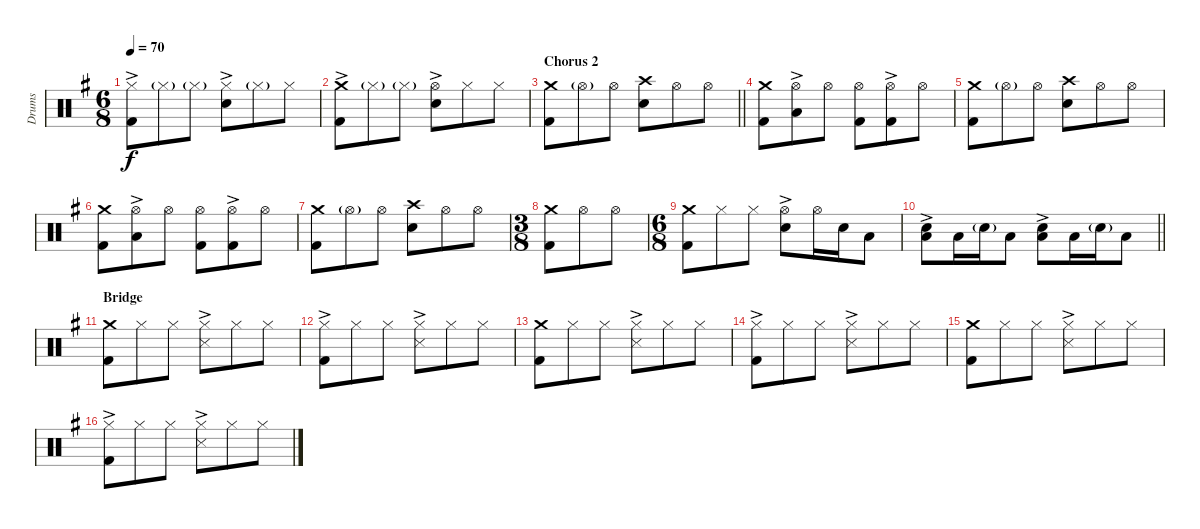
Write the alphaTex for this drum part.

\track ("Drums" "Drums") {instrument percussion}
\staff {score}
\articulation defaults
\ts (6 8)
\tempo 70
\clef neutral
\ks g
("Hi-Hat (closed)"{ac} "Kick (hit) 2").8{dy f} "Hi-Hat (closed)"{g}.8 "Hi-Hat (closed)"{g}.8 ("Hi-Hat (closed)"{ac} "Snare (hit) 2").8 "Hi-Hat (closed)"{g}.8 "Hi-Hat (closed)".8 |
("Crash medium (hit)"{ac} "Kick (hit) 2").8 "Hi-Hat (closed)"{g}.8 "Hi-Hat (closed)"{g}.8 ("Hi-Hat (open)"{ac} "Snare (hit) 2").8 "Hi-Hat (closed)".8 "Hi-Hat (closed)".8 |
\section ("" "Chorus 2")
\barLineRight lightlight
("Crash medium (hit)" "Kick (hit) 2").8 "Hi-Hat (open)"{g}.8 "Hi-Hat (open)".8 ("Crash high (hit)" "Snare (hit) 2").8 "Hi-Hat (open)".8 "Hi-Hat (open)".8 |
("Crash medium (hit)" "Kick (hit) 2").8 ("Hi-Hat (open)"{ac} "Low Tom (hit)").8 "Hi-Hat (open)".8 ("Hi-Hat (open)" "Kick (hit) 2").8 ("Hi-Hat (open)"{ac} "Kick (hit) 2").8 "Hi-Hat (open)".8 |
("Crash medium (hit)" "Kick (hit) 2").8 "Hi-Hat (open)"{g}.8 "Hi-Hat (open)".8 ("Crash high (hit)" "Snare (hit) 2").8 "Hi-Hat (open)".8 "Hi-Hat (open)".8 |
("Crash medium (hit)" "Kick (hit) 2").8 ("Hi-Hat (open)"{ac} "Low Tom (hit)").8 "Hi-Hat (open)".8 ("Hi-Hat (open)" "Kick (hit) 2").8 ("Hi-Hat (open)"{ac} "Kick (hit) 2").8 "Hi-Hat (open)".8 |
("Crash medium (hit)" "Kick (hit) 2").8 "Hi-Hat (open)"{g}.8 "Hi-Hat (open)".8 ("Crash high (hit)" "Snare (hit) 2").8 "Hi-Hat (open)".8 "Hi-Hat (open)".8 |
\ts (3 8)
("Crash medium (hit)" "Kick (hit) 2").8 "Hi-Hat (open)".8 "Hi-Hat (open)".8 |
\ts (6 8)
("Crash medium (hit)" "Kick (hit) 2").8 "Hi-Hat (closed)".8 "Hi-Hat (closed)".8 ("Hi-Hat (open)"{ac} "Snare (hit) 2").8 "Hi-Hat (open)".16 "Snare (hit) 2".16 "Low Tom (hit)".8 |
\barLineRight lightlight
("Snare (hit) 2"{ac} "Low Tom (hit)").8 "Low Tom (hit)".16 "Snare (hit) 2"{g}.16 "Low Tom (hit)".8 ("Snare (hit) 2"{ac} "Low Tom (hit)").8 "Low Tom (hit)".16 "Snare (hit) 2"{g}.16 "Low Tom (hit)".8 |
\section ("" "Bridge")
("Crash medium (hit)" "Kick (hit) 2").8 "Hi-Hat (closed)".8 "Hi-Hat (closed)".8 ("Hi-Hat (closed)" "Snare (side stick) 3"{ac}).8 "Hi-Hat (closed)".8 "Hi-Hat (closed)".8 |
("Hi-Hat (closed)"{ac} "Kick (hit) 2").8 "Hi-Hat (closed)".8 "Hi-Hat (closed)".8 ("Hi-Hat (closed)"{ac} "Snare (side stick) 3").8 "Hi-Hat (closed)".8 "Hi-Hat (closed)".8 |
("Crash medium (hit)" "Kick (hit) 2").8 "Hi-Hat (closed)".8 "Hi-Hat (closed)".8 ("Hi-Hat (closed)" "Snare (side stick) 3"{ac}).8 "Hi-Hat (closed)".8 "Hi-Hat (closed)".8 |
("Hi-Hat (closed)"{ac} "Kick (hit) 2").8 "Hi-Hat (closed)".8 "Hi-Hat (closed)".8 ("Hi-Hat (closed)"{ac} "Snare (side stick) 3").8 "Hi-Hat (closed)".8 "Hi-Hat (closed)".8 |
("Crash medium (hit)" "Kick (hit) 2").8 "Hi-Hat (closed)".8 "Hi-Hat (closed)".8 ("Hi-Hat (closed)" "Snare (side stick) 3"{ac}).8 "Hi-Hat (closed)".8 "Hi-Hat (closed)".8 |
("Hi-Hat (closed)"{ac} "Kick (hit) 2").8 "Hi-Hat (closed)".8 "Hi-Hat (closed)".8 ("Hi-Hat (closed)"{ac} "Snare (side stick) 3").8 "Hi-Hat (closed)".8 "Hi-Hat (closed)".8
